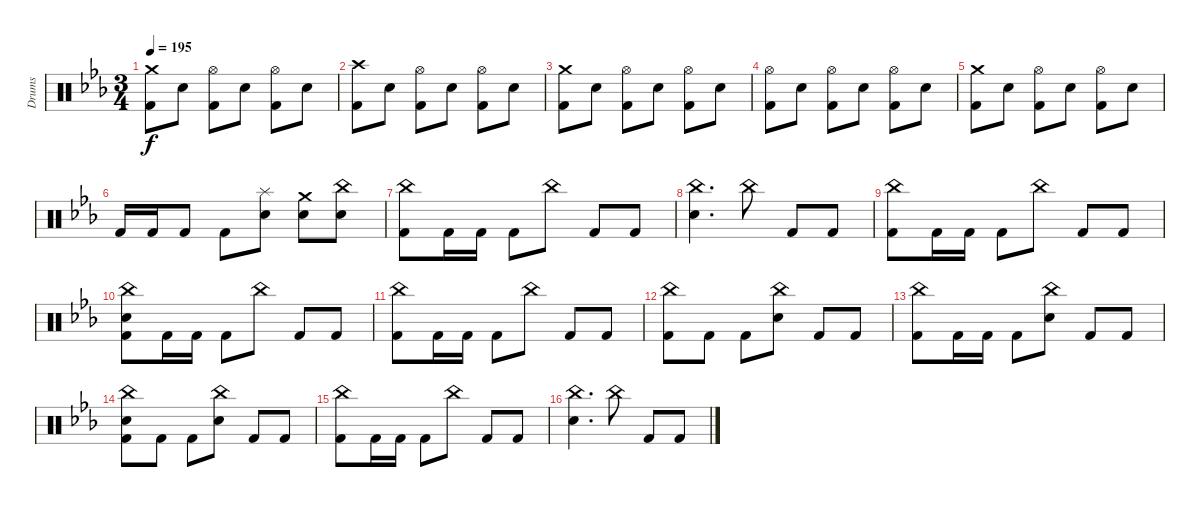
\track ("Drums" "Drums") {instrument percussion}
\staff {score}
\articulation defaults
\ts (3 4)
\tempo 195
\clef neutral
\ks cminor
("Crash medium (hit)" "Kick (hit) 2").8{dy f} "Electric Snare (hit)".8 ("Hi-Hat (open)" "Kick (hit) 2").8 "Electric Snare (hit)".8 ("Hi-Hat (open)" "Kick (hit) 2").8 "Electric Snare (hit)".8 |
("Crash high (hit)" "Kick (hit) 2").8 "Electric Snare (hit)".8 ("Hi-Hat (open)" "Kick (hit) 2").8 "Electric Snare (hit)".8 ("Hi-Hat (open)" "Kick (hit) 2").8 "Electric Snare (hit)".8 |
("Crash medium (hit)" "Kick (hit) 2").8 "Electric Snare (hit)".8 ("Hi-Hat (open)" "Kick (hit) 2").8 "Electric Snare (hit)".8 ("Hi-Hat (open)" "Kick (hit) 2").8 "Electric Snare (hit)".8 |
("Hi-Hat (open)" "Kick (hit) 2").8 "Electric Snare (hit)".8 ("Hi-Hat (open)" "Kick (hit) 2").8 "Electric Snare (hit)".8 ("Hi-Hat (open)" "Kick (hit) 2").8 "Electric Snare (hit)".8 |
("Crash medium (hit)" "Kick (hit) 2").8 "Electric Snare (hit)".8 ("Hi-Hat (open)" "Kick (hit) 2").8 "Electric Snare (hit)".8 ("Hi-Hat (open)" "Kick (hit) 2").8 "Electric Snare (hit)".8 |
"Kick (hit) 2".16 "Kick (hit) 2".16 "Kick (hit) 2".8 "Kick (hit) 2".8 ("Splash (hit)" "Electric Snare (hit)").8 ("Crash medium (hit)" "Electric Snare (hit)").8 ("China (hit)" "Electric Snare (hit)").8 |
("China (hit)" "Kick (hit) 2").8 "Kick (hit) 2".16 "Kick (hit) 2".16 "Kick (hit) 2".8 "China (hit)".8 "Kick (hit) 2".8 "Kick (hit) 2".8 |
("China (hit)" "Electric Snare (hit)").4{d} "China (hit)".8 "Kick (hit) 2".8 "Kick (hit) 2".8 |
("China (hit)" "Kick (hit) 2").8 "Kick (hit) 2".16 "Kick (hit) 2".16 "Kick (hit) 2".8 "China (hit)".8 "Kick (hit) 2".8 "Kick (hit) 2".8 |
("China (hit)" "Electric Snare (hit)" "Kick (hit) 2").8 "Kick (hit) 2".16 "Kick (hit) 2".16 "Kick (hit) 2".8 "China (hit)".8 "Kick (hit) 2".8 "Kick (hit) 2".8 |
("China (hit)" "Kick (hit) 2").8 "Kick (hit) 2".16 "Kick (hit) 2".16 "Kick (hit) 2".8 "China (hit)".8 "Kick (hit) 2".8 "Kick (hit) 2".8 |
("China (hit)" "Kick (hit) 2").8 "Kick (hit) 2".8 "Kick (hit) 2".8 ("China (hit)" "Electric Snare (hit)").8 "Kick (hit) 2".8 "Kick (hit) 2".8 |
("China (hit)" "Kick (hit) 2").8 "Kick (hit) 2".16 "Kick (hit) 2".16 "Kick (hit) 2".8 ("China (hit)" "Electric Snare (hit)").8 "Kick (hit) 2".8 "Kick (hit) 2".8 |
("China (hit)" "Electric Snare (hit)" "Kick (hit) 2").8 "Kick (hit) 2".8 "Kick (hit) 2".8 ("China (hit)" "Electric Snare (hit)").8 "Kick (hit) 2".8 "Kick (hit) 2".8 |
("China (hit)" "Kick (hit) 2").8 "Kick (hit) 2".16 "Kick (hit) 2".16 "Kick (hit) 2".8 "China (hit)".8 "Kick (hit) 2".8 "Kick (hit) 2".8 |
("China (hit)" "Electric Snare (hit)").4{d} "China (hit)".8 "Kick (hit) 2".8 "Kick (hit) 2".8
